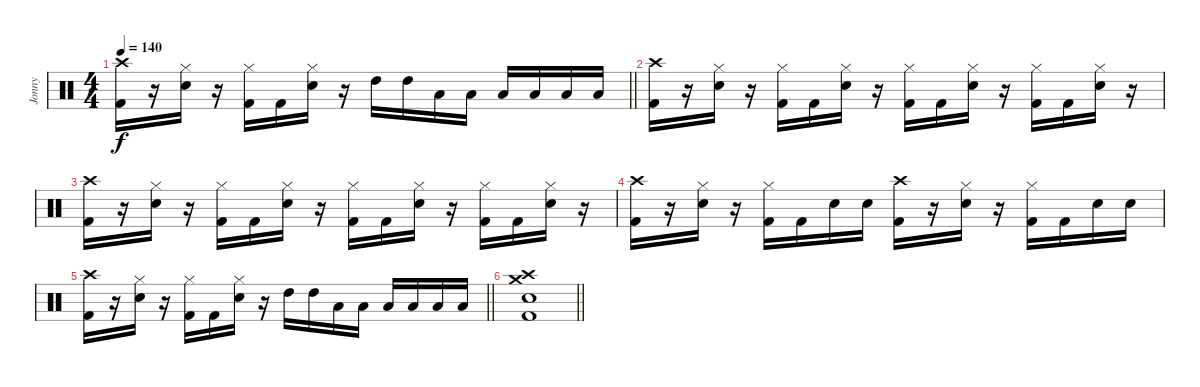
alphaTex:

\track ("Jonny" "Jonny") {instrument percussion}
\staff {score}
\articulation defaults
\ts (4 4)
\tempo 140
\clef neutral
\barLineRight lightlight
\ks c
("Crash high (hit)" "Kick (hit) 2").16{dy f} r.16 ("Hi-Hat (closed)" "Electric Snare (hit)").16 r.16 ("Hi-Hat (closed)" "Kick (hit) 2").16 "Kick (hit) 2".16 ("Hi-Hat (closed)" "Electric Snare (hit)").16 r.16 "High Tom (hit)".16 "High Tom (hit)".16 "Low Tom (hit)".16 "Low Tom (hit)".16 "Low Floor Tom (hit)".16 "Low Tom (hit)".16 "Low Floor Tom (hit)".16 "Low Floor Tom (hit)".16 |
("Crash high (hit)" "Kick (hit) 2").16 r.16 ("Hi-Hat (closed)" "Electric Snare (hit)").16 r.16 ("Hi-Hat (closed)" "Kick (hit) 2").16 "Kick (hit) 2".16 ("Hi-Hat (closed)" "Electric Snare (hit)").16 r.16 ("Hi-Hat (closed)" "Kick (hit) 2").16 "Kick (hit) 2".16 ("Hi-Hat (closed)" "Electric Snare (hit)").16 r.16 ("Hi-Hat (closed)" "Kick (hit) 2").16 "Kick (hit) 2".16 ("Hi-Hat (closed)" "Electric Snare (hit)").16 r.16 |
("Crash high (hit)" "Kick (hit) 2").16 r.16 ("Hi-Hat (closed)" "Electric Snare (hit)").16 r.16 ("Hi-Hat (closed)" "Kick (hit) 2").16 "Kick (hit) 2".16 ("Hi-Hat (closed)" "Electric Snare (hit)").16 r.16 ("Hi-Hat (closed)" "Kick (hit) 2").16 "Kick (hit) 2".16 ("Hi-Hat (closed)" "Electric Snare (hit)").16 r.16 ("Hi-Hat (closed)" "Kick (hit) 2").16 "Kick (hit) 2".16 ("Hi-Hat (closed)" "Electric Snare (hit)").16 r.16 |
("Crash high (hit)" "Kick (hit) 2").16 r.16 ("Hi-Hat (closed)" "Electric Snare (hit)").16 r.16 ("Hi-Hat (closed)" "Kick (hit) 2").16 "Kick (hit) 2".16 "Electric Snare (hit)".16 "Electric Snare (hit)".16 ("Crash high (hit)" "Kick (hit) 2").16 r.16 ("Hi-Hat (closed)" "Electric Snare (hit)").16 r.16 ("Hi-Hat (closed)" "Kick (hit) 2").16 "Kick (hit) 2".16 "Electric Snare (hit)".16 "Electric Snare (hit)".16 |
\barLineRight lightlight
("Crash high (hit)" "Kick (hit) 2").16 r.16 ("Hi-Hat (closed)" "Electric Snare (hit)").16 r.16 ("Hi-Hat (closed)" "Kick (hit) 2").16 "Kick (hit) 2".16 ("Hi-Hat (closed)" "Electric Snare (hit)").16 r.16 "High Tom (hit)".16 "High Tom (hit)".16 "Low Tom (hit)".16 "Low Tom (hit)".16 "Low Floor Tom (hit)".16 "Low Tom (hit)".16 "Low Floor Tom (hit)".16 "Low Floor Tom (hit)".16 |
\barLineRight lightlight
("Crash high (hit)" "Crash medium (hit)" "Electric Snare (hit)" "Kick (hit) 2").1
